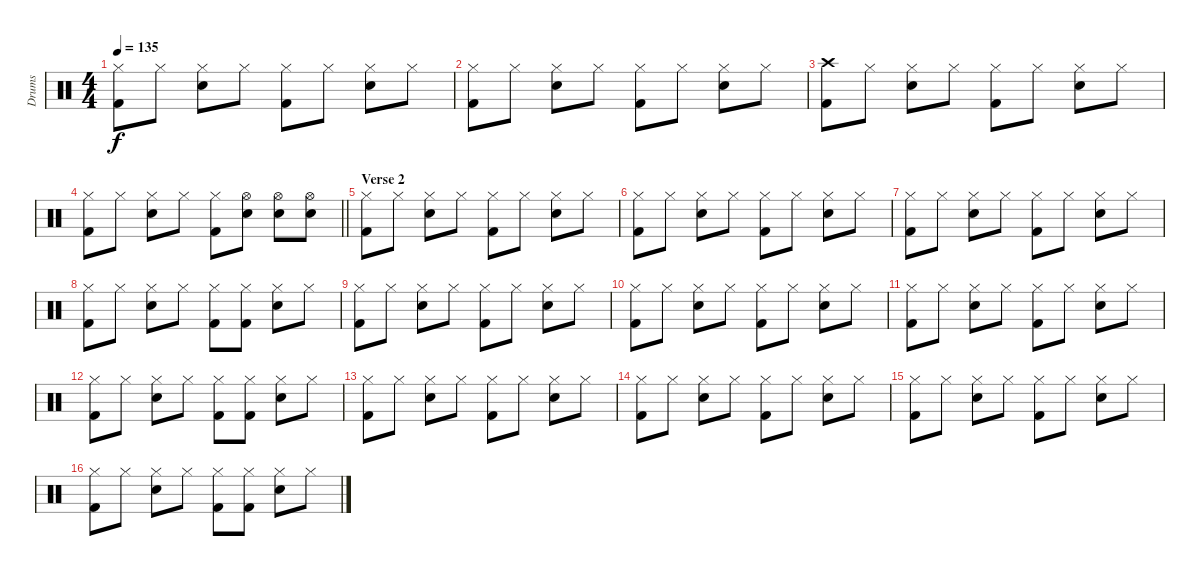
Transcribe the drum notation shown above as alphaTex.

\track ("Drums" "Drums") {instrument percussion}
\staff {score}
\articulation defaults
\ts (4 4)
\tempo 135
\clef neutral
\ks c
("Hi-Hat (closed)" "Kick (hit) 2").8{dy f} "Hi-Hat (closed)".8 ("Hi-Hat (closed)" "Electric Snare (hit)").8 "Hi-Hat (closed)".8 ("Hi-Hat (closed)" "Kick (hit) 2").8 "Hi-Hat (closed)".8 ("Hi-Hat (closed)" "Electric Snare (hit)").8 "Hi-Hat (closed)".8 |
("Hi-Hat (closed)" "Kick (hit) 2").8 "Hi-Hat (closed)".8 ("Hi-Hat (closed)" "Electric Snare (hit)").8 "Hi-Hat (closed)".8 ("Hi-Hat (closed)" "Kick (hit) 2").8 "Hi-Hat (closed)".8 ("Hi-Hat (closed)" "Electric Snare (hit)").8 "Hi-Hat (closed)".8 |
("Crash high (hit)" "Kick (hit) 2").8 "Hi-Hat (closed)".8 ("Hi-Hat (closed)" "Electric Snare (hit)").8 "Hi-Hat (closed)".8 ("Hi-Hat (closed)" "Kick (hit) 2").8 "Hi-Hat (closed)".8 ("Hi-Hat (closed)" "Electric Snare (hit)").8 "Hi-Hat (closed)".8 |
\barLineRight lightlight
("Hi-Hat (closed)" "Kick (hit) 2").8 "Hi-Hat (closed)".8 ("Hi-Hat (closed)" "Electric Snare (hit)").8 "Hi-Hat (closed)".8 ("Hi-Hat (closed)" "Kick (hit) 2").8 ("Hi-Hat (open)" "Electric Snare (hit)").8 ("Hi-Hat (open)" "Electric Snare (hit)").8 ("Hi-Hat (open)" "Electric Snare (hit)").8 |
\section ("" "Verse 2")
("Hi-Hat (closed)" "Kick (hit) 2").8 "Hi-Hat (closed)".8 ("Hi-Hat (closed)" "Electric Snare (hit)").8 "Hi-Hat (closed)".8 ("Hi-Hat (closed)" "Kick (hit) 2").8 "Hi-Hat (closed)".8 ("Hi-Hat (closed)" "Electric Snare (hit)").8 "Hi-Hat (closed)".8 |
("Hi-Hat (closed)" "Kick (hit) 2").8 "Hi-Hat (closed)".8 ("Hi-Hat (closed)" "Electric Snare (hit)").8 "Hi-Hat (closed)".8 ("Hi-Hat (closed)" "Kick (hit) 2").8 "Hi-Hat (closed)".8 ("Hi-Hat (closed)" "Electric Snare (hit)").8 "Hi-Hat (closed)".8 |
("Hi-Hat (closed)" "Kick (hit) 2").8 "Hi-Hat (closed)".8 ("Hi-Hat (closed)" "Electric Snare (hit)").8 "Hi-Hat (closed)".8 ("Hi-Hat (closed)" "Kick (hit) 2").8 "Hi-Hat (closed)".8 ("Hi-Hat (closed)" "Electric Snare (hit)").8 "Hi-Hat (closed)".8 |
("Hi-Hat (closed)" "Kick (hit) 2").8 "Hi-Hat (closed)".8 ("Hi-Hat (closed)" "Electric Snare (hit)").8 "Hi-Hat (closed)".8 ("Hi-Hat (closed)" "Kick (hit) 2").8 ("Hi-Hat (closed)" "Kick (hit) 2").8 ("Hi-Hat (closed)" "Electric Snare (hit)").8 "Hi-Hat (closed)".8 |
("Hi-Hat (closed)" "Kick (hit) 2").8 "Hi-Hat (closed)".8 ("Hi-Hat (closed)" "Electric Snare (hit)").8 "Hi-Hat (closed)".8 ("Hi-Hat (closed)" "Kick (hit) 2").8 "Hi-Hat (closed)".8 ("Hi-Hat (closed)" "Electric Snare (hit)").8 "Hi-Hat (closed)".8 |
("Hi-Hat (closed)" "Kick (hit) 2").8 "Hi-Hat (closed)".8 ("Hi-Hat (closed)" "Electric Snare (hit)").8 "Hi-Hat (closed)".8 ("Hi-Hat (closed)" "Kick (hit) 2").8 "Hi-Hat (closed)".8 ("Hi-Hat (closed)" "Electric Snare (hit)").8 "Hi-Hat (closed)".8 |
("Hi-Hat (closed)" "Kick (hit) 2").8 "Hi-Hat (closed)".8 ("Hi-Hat (closed)" "Electric Snare (hit)").8 "Hi-Hat (closed)".8 ("Hi-Hat (closed)" "Kick (hit) 2").8 "Hi-Hat (closed)".8 ("Hi-Hat (closed)" "Electric Snare (hit)").8 "Hi-Hat (closed)".8 |
("Hi-Hat (closed)" "Kick (hit) 2").8 "Hi-Hat (closed)".8 ("Hi-Hat (closed)" "Electric Snare (hit)").8 "Hi-Hat (closed)".8 ("Hi-Hat (closed)" "Kick (hit) 2").8 ("Hi-Hat (closed)" "Kick (hit) 2").8 ("Hi-Hat (closed)" "Electric Snare (hit)").8 "Hi-Hat (closed)".8 |
("Hi-Hat (closed)" "Kick (hit) 2").8 "Hi-Hat (closed)".8 ("Hi-Hat (closed)" "Electric Snare (hit)").8 "Hi-Hat (closed)".8 ("Hi-Hat (closed)" "Kick (hit) 2").8 "Hi-Hat (closed)".8 ("Hi-Hat (closed)" "Electric Snare (hit)").8 "Hi-Hat (closed)".8 |
("Hi-Hat (closed)" "Kick (hit) 2").8 "Hi-Hat (closed)".8 ("Hi-Hat (closed)" "Electric Snare (hit)").8 "Hi-Hat (closed)".8 ("Hi-Hat (closed)" "Kick (hit) 2").8 "Hi-Hat (closed)".8 ("Hi-Hat (closed)" "Electric Snare (hit)").8 "Hi-Hat (closed)".8 |
("Hi-Hat (closed)" "Kick (hit) 2").8 "Hi-Hat (closed)".8 ("Hi-Hat (closed)" "Electric Snare (hit)").8 "Hi-Hat (closed)".8 ("Hi-Hat (closed)" "Kick (hit) 2").8 "Hi-Hat (closed)".8 ("Hi-Hat (closed)" "Electric Snare (hit)").8 "Hi-Hat (closed)".8 |
("Hi-Hat (closed)" "Kick (hit) 2").8 "Hi-Hat (closed)".8 ("Hi-Hat (closed)" "Electric Snare (hit)").8 "Hi-Hat (closed)".8 ("Hi-Hat (closed)" "Kick (hit) 2").8 ("Hi-Hat (closed)" "Kick (hit) 2").8 ("Hi-Hat (closed)" "Electric Snare (hit)").8 "Hi-Hat (closed)".8
